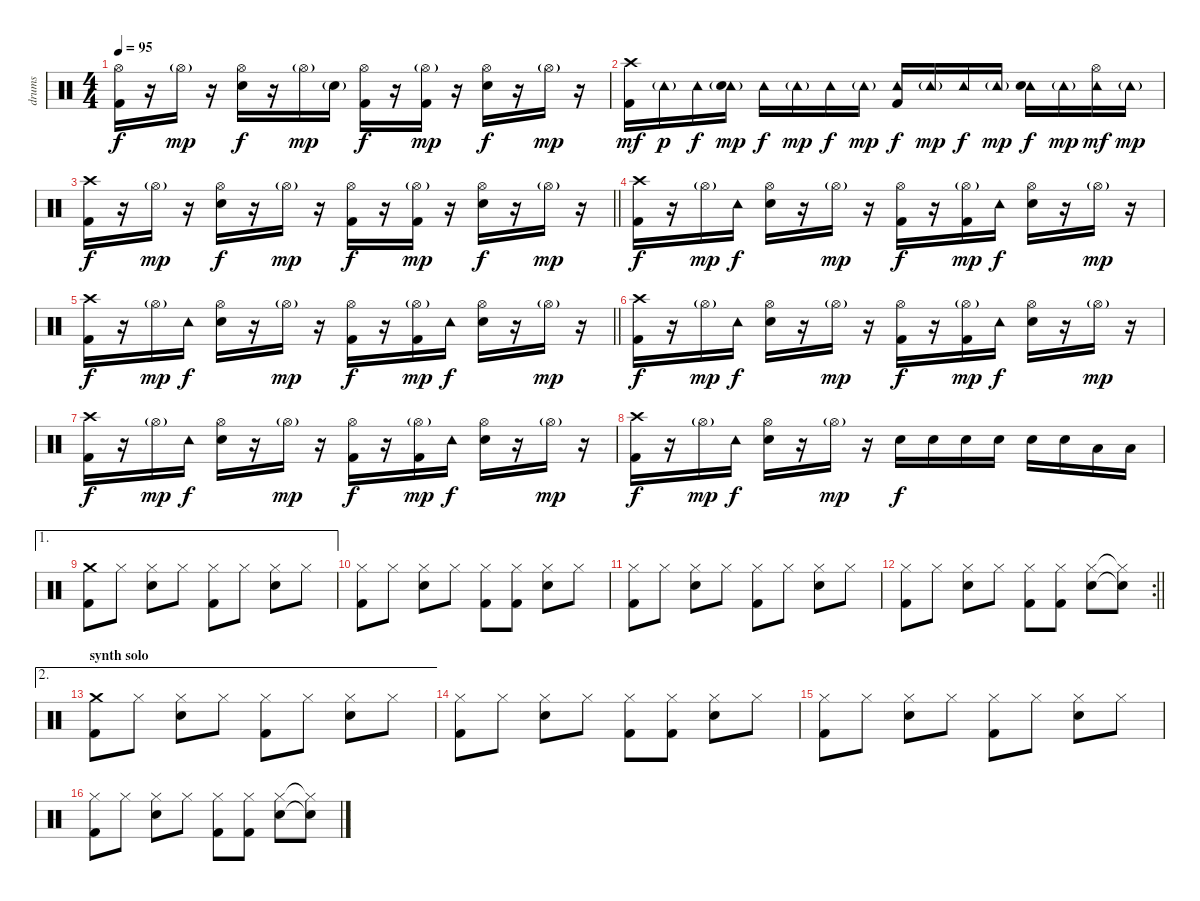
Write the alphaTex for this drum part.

\track ("drums" "drums") {instrument percussion}
\staff {score}
\articulation defaults
\ts (4 4)
\tempo 95
\clef neutral
\ks c
("Hi-Hat (open)" "Kick (hit) 2").16{dy f} r.16 "Hi-Hat (open)"{g}.16{dy mp} r.16 ("Hi-Hat (open)" "Electric Snare (hit)").16{dy f} r.16 "Hi-Hat (open)"{g}.16{dy mp} "Electric Snare (hit)"{g}.16 ("Hi-Hat (open)" "Kick (hit) 2").16{dy f} r.16 ("Hi-Hat (open)"{g} "Kick (hit) 2").16{dy mp} r.16 ("Hi-Hat (open)" "Electric Snare (hit)").16{dy f} r.16 "Hi-Hat (open)"{g}.16{dy mp} r.16 |
("Crash high (hit)" "Kick (hit) 2").16{dy mf} "Tambourine (hit)"{g}.16{dy p} "Tambourine (hit)".16{dy f} ("Tambourine (hit)"{g} "Electric Snare (hit)").16{dy mp} "Tambourine (hit)".16{dy f} "Tambourine (hit)"{g}.16{dy mp} "Tambourine (hit)".16{dy f} "Tambourine (hit)"{g}.16{dy mp} ("Tambourine (hit)" "Kick (hit) 2").16{dy f} "Tambourine (hit)"{g}.16{dy mp} "Tambourine (hit)".16{dy f} "Tambourine (hit)"{g}.16{dy mp} ("Tambourine (hit)" "Electric Snare (hit)").16{dy f} "Tambourine (hit)"{g}.16{dy mp} ("Hi-Hat (open)" "Tambourine (hit)").16{dy mf} "Tambourine (hit)"{g}.16{dy mp} |
\barLineRight lightlight
("Crash high (hit)" "Kick (hit) 2").16{dy f} r.16 "Hi-Hat (open)"{g}.16{dy mp} r.16 ("Hi-Hat (open)" "Electric Snare (hit)").16{dy f} r.16 "Hi-Hat (open)"{g}.16{dy mp} r.16 ("Hi-Hat (open)" "Kick (hit) 2").16{dy f} r.16 ("Hi-Hat (open)"{g} "Kick (hit) 2").16{dy mp} r.16 ("Hi-Hat (open)" "Electric Snare (hit)").16{dy f} r.16 "Hi-Hat (open)"{g}.16{dy mp} r.16 |
("Crash high (hit)" "Kick (hit) 2").16{dy f} r.16 "Hi-Hat (open)"{g}.16{dy mp} "Tambourine (hit)".16{dy f} ("Hi-Hat (open)" "Electric Snare (hit)").16 r.16 "Hi-Hat (open)"{g}.16{dy mp} r.16 ("Hi-Hat (open)" "Kick (hit) 2").16{dy f} r.16 ("Hi-Hat (open)"{g} "Kick (hit) 2").16{dy mp} "Tambourine (hit)".16{dy f} ("Hi-Hat (open)" "Electric Snare (hit)").16 r.16 "Hi-Hat (open)"{g}.16{dy mp} r.16 |
\barLineRight lightlight
("Crash high (hit)" "Kick (hit) 2").16{dy f} r.16 "Hi-Hat (open)"{g}.16{dy mp} "Tambourine (hit)".16{dy f} ("Hi-Hat (open)" "Electric Snare (hit)").16 r.16 "Hi-Hat (open)"{g}.16{dy mp} r.16 ("Hi-Hat (open)" "Kick (hit) 2").16{dy f} r.16 ("Hi-Hat (open)"{g} "Kick (hit) 2").16{dy mp} "Tambourine (hit)".16{dy f} ("Hi-Hat (open)" "Electric Snare (hit)").16 r.16 "Hi-Hat (open)"{g}.16{dy mp} r.16 |
("Crash high (hit)" "Kick (hit) 2").16{dy f} r.16 "Hi-Hat (open)"{g}.16{dy mp} "Tambourine (hit)".16{dy f} ("Hi-Hat (open)" "Electric Snare (hit)").16 r.16 "Hi-Hat (open)"{g}.16{dy mp} r.16 ("Hi-Hat (open)" "Kick (hit) 2").16{dy f} r.16 ("Hi-Hat (open)"{g} "Kick (hit) 2").16{dy mp} "Tambourine (hit)".16{dy f} ("Hi-Hat (open)" "Electric Snare (hit)").16 r.16 "Hi-Hat (open)"{g}.16{dy mp} r.16 |
("Crash high (hit)" "Kick (hit) 2").16{dy f} r.16 "Hi-Hat (open)"{g}.16{dy mp} "Tambourine (hit)".16{dy f} ("Hi-Hat (open)" "Electric Snare (hit)").16 r.16 "Hi-Hat (open)"{g}.16{dy mp} r.16 ("Hi-Hat (open)" "Kick (hit) 2").16{dy f} r.16 ("Hi-Hat (open)"{g} "Kick (hit) 2").16{dy mp} "Tambourine (hit)".16{dy f} ("Hi-Hat (open)" "Electric Snare (hit)").16 r.16 "Hi-Hat (open)"{g}.16{dy mp} r.16 |
("Crash high (hit)" "Kick (hit) 2").16{dy f} r.16 "Hi-Hat (open)"{g}.16{dy mp} "Tambourine (hit)".16{dy f} ("Hi-Hat (open)" "Electric Snare (hit)").16 r.16 "Hi-Hat (open)"{g}.16{dy mp} r.16 "Electric Snare (hit)".16{dy f} "Electric Snare (hit)".16 "Electric Snare (hit)".16 "Electric Snare (hit)".16 "Electric Snare (hit)".16 "Electric Snare (hit)".16 "Low Tom (hit)".16 "Low Tom (hit)".16 |
\ae 1
("Crash medium (hit)" "Kick (hit) 2").8 "Hi-Hat (closed)".8 ("Hi-Hat (closed)" "Snare (hit) 2").8 "Hi-Hat (closed)".8 ("Hi-Hat (closed)" "Kick (hit) 2").8 "Hi-Hat (closed)".8 ("Hi-Hat (closed)" "Snare (hit) 2").8 "Hi-Hat (closed)".8 |
("Hi-Hat (closed)" "Kick (hit) 2").8 "Hi-Hat (closed)".8 ("Hi-Hat (closed)" "Snare (hit) 2").8 "Hi-Hat (closed)".8 ("Hi-Hat (closed)" "Kick (hit) 2").8 ("Hi-Hat (closed)" "Kick (hit) 2").8 ("Hi-Hat (closed)" "Snare (hit) 2").8 "Hi-Hat (closed)".8 |
("Hi-Hat (closed)" "Kick (hit) 2").8 "Hi-Hat (closed)".8 ("Hi-Hat (closed)" "Snare (hit) 2").8 "Hi-Hat (closed)".8 ("Hi-Hat (closed)" "Kick (hit) 2").8 "Hi-Hat (closed)".8 ("Hi-Hat (closed)" "Snare (hit) 2").8 "Hi-Hat (closed)".8 |
\rc 2
\barLineRight lightlight
("Hi-Hat (closed)" "Kick (hit) 2").8 "Hi-Hat (closed)".8 ("Hi-Hat (closed)" "Snare (hit) 2").8 "Hi-Hat (closed)".8 ("Hi-Hat (closed)" "Kick (hit) 2").8 ("Hi-Hat (closed)" "Kick (hit) 2").8 ("Hi-Hat (closed)" "Snare (hit) 2").8 ("Hi-Hat (closed)"{t} "Snare (hit)"{t}).8 |
\ae 2
\section ("" "synth solo")
("Crash medium (hit)" "Kick (hit) 2").8 "Hi-Hat (closed)".8 ("Hi-Hat (closed)" "Snare (hit) 2").8 "Hi-Hat (closed)".8 ("Hi-Hat (closed)" "Kick (hit) 2").8 "Hi-Hat (closed)".8 ("Hi-Hat (closed)" "Snare (hit) 2").8 "Hi-Hat (closed)".8 |
("Hi-Hat (closed)" "Kick (hit) 2").8 "Hi-Hat (closed)".8 ("Hi-Hat (closed)" "Snare (hit) 2").8 "Hi-Hat (closed)".8 ("Hi-Hat (closed)" "Kick (hit) 2").8 ("Hi-Hat (closed)" "Kick (hit) 2").8 ("Hi-Hat (closed)" "Snare (hit) 2").8 "Hi-Hat (closed)".8 |
("Hi-Hat (closed)" "Kick (hit) 2").8 "Hi-Hat (closed)".8 ("Hi-Hat (closed)" "Snare (hit) 2").8 "Hi-Hat (closed)".8 ("Hi-Hat (closed)" "Kick (hit) 2").8 "Hi-Hat (closed)".8 ("Hi-Hat (closed)" "Snare (hit) 2").8 "Hi-Hat (closed)".8 |
("Hi-Hat (closed)" "Kick (hit) 2").8 "Hi-Hat (closed)".8 ("Hi-Hat (closed)" "Snare (hit) 2").8 "Hi-Hat (closed)".8 ("Hi-Hat (closed)" "Kick (hit) 2").8 ("Hi-Hat (closed)" "Kick (hit) 2").8 ("Hi-Hat (closed)" "Snare (hit) 2").8 ("Hi-Hat (closed)"{t} "Snare (hit)"{t}).8
